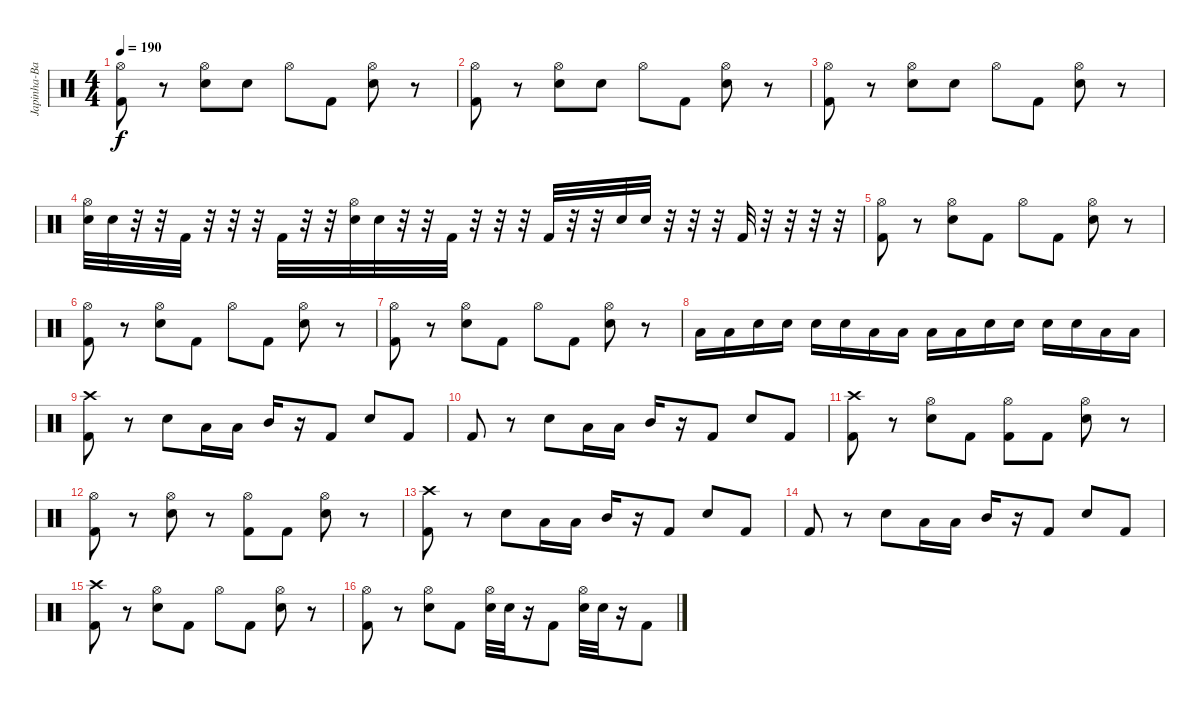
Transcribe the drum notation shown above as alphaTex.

\track ("Japinha-Batera" "Japinha-Ba") {instrument percussion}
\staff {score}
\articulation defaults
\ts (4 4)
\tempo 190
\clef neutral
\ks c
("Hi-Hat (open)" "Kick (hit) 2").8{dy f} r.8 ("Hi-Hat (open)" "Electric Snare (hit)").8 "Electric Snare (hit)".8 "Hi-Hat (open)".8 "Kick (hit) 2".8 ("Hi-Hat (open)" "Electric Snare (hit)").8 r.8 |
("Hi-Hat (open)" "Kick (hit) 2").8 r.8 ("Hi-Hat (open)" "Electric Snare (hit)").8 "Electric Snare (hit)".8 "Hi-Hat (open)".8 "Kick (hit) 2".8 ("Hi-Hat (open)" "Electric Snare (hit)").8 r.8 |
("Hi-Hat (open)" "Kick (hit) 2").8 r.8 ("Hi-Hat (open)" "Electric Snare (hit)").8 "Electric Snare (hit)".8 "Hi-Hat (open)".8 "Kick (hit) 2".8 ("Hi-Hat (open)" "Electric Snare (hit)").8 r.8 |
("Hi-Hat (open)" "Electric Snare (hit)").32 "Electric Snare (hit)".32 r.32 r.32 "Kick (hit) 2".32 r.32 r.32 r.32 "Kick (hit) 2".32 r.32 r.32 ("Hi-Hat (open)" "Electric Snare (hit)").32 "Electric Snare (hit)".32 r.32 r.32 "Kick (hit) 2".32 r.32 r.32 r.32 "Kick (hit) 2".32 r.32 r.32 "Electric Snare (hit)".32 "Electric Snare (hit)".32 r.32 r.32 r.32 "Kick (hit) 2".32 r.32 r.32 r.32 r.32 |
("Hi-Hat (open)" "Kick (hit) 2").8 r.8 ("Hi-Hat (open)" "Electric Snare (hit)").8 "Kick (hit) 2".8 "Hi-Hat (open)".8 "Kick (hit) 2".8 ("Hi-Hat (open)" "Electric Snare (hit)").8 r.8 |
("Hi-Hat (open)" "Kick (hit) 2").8 r.8 ("Hi-Hat (open)" "Electric Snare (hit)").8 "Kick (hit) 2".8 "Hi-Hat (open)".8 "Kick (hit) 2".8 ("Hi-Hat (open)" "Electric Snare (hit)").8 r.8 |
("Hi-Hat (open)" "Kick (hit) 2").8 r.8 ("Hi-Hat (open)" "Electric Snare (hit)").8 "Kick (hit) 2".8 "Hi-Hat (open)".8 "Kick (hit) 2".8 ("Hi-Hat (open)" "Electric Snare (hit)").8 r.8 |
"Low Tom (hit)".16 "Low Tom (hit)".16 "Electric Snare (hit)".16 "Electric Snare (hit)".16 "Electric Snare (hit)".16 "Electric Snare (hit)".16 "Low Tom (hit)".16 "Low Tom (hit)".16 "Low Tom (hit)".16 "Low Tom (hit)".16 "Electric Snare (hit)".16 "Electric Snare (hit)".16 "Electric Snare (hit)".16 "Electric Snare (hit)".16 "Low Tom (hit)".16 "Low Tom (hit)".16 |
("Crash high (hit)" "Kick (hit) 2").8 r.8 "Electric Snare (hit)".8 "Low Tom (hit)".16 "Low Tom (hit)".16 "Mid Tom (hit)".16 r.16 "Kick (hit) 2".8 "Electric Snare (hit)".8 "Kick (hit) 2".8 |
"Kick (hit) 2".8 r.8 "Electric Snare (hit)".8 "Low Tom (hit)".16 "Low Tom (hit)".16 "Mid Tom (hit)".16 r.16 "Kick (hit) 2".8 "Electric Snare (hit)".8 "Kick (hit) 2".8 |
("Crash high (hit)" "Kick (hit) 2").8 r.8 ("Hi-Hat (open)" "Electric Snare (hit)").8 "Kick (hit) 2".8 ("Hi-Hat (open)" "Kick (hit) 2").8 "Kick (hit) 2".8 ("Hi-Hat (open)" "Electric Snare (hit)").8 r.8 |
("Hi-Hat (open)" "Kick (hit) 2").8 r.8 ("Hi-Hat (open)" "Electric Snare (hit)").8 r.8 ("Hi-Hat (open)" "Kick (hit) 2").8 "Kick (hit) 2".8 ("Hi-Hat (open)" "Electric Snare (hit)").8 r.8 |
("Crash high (hit)" "Kick (hit) 2").8 r.8 "Electric Snare (hit)".8 "Low Tom (hit)".16 "Low Tom (hit)".16 "Mid Tom (hit)".16 r.16 "Kick (hit) 2".8 "Electric Snare (hit)".8 "Kick (hit) 2".8 |
"Kick (hit) 2".8 r.8 "Electric Snare (hit)".8 "Low Tom (hit)".16 "Low Tom (hit)".16 "Mid Tom (hit)".16 r.16 "Kick (hit) 2".8 "Electric Snare (hit)".8 "Kick (hit) 2".8 |
("Crash high (hit)" "Kick (hit) 2").8 r.8 ("Hi-Hat (open)" "Electric Snare (hit)").8 "Kick (hit) 2".8 "Hi-Hat (open)".8 "Kick (hit) 2".8 ("Hi-Hat (open)" "Electric Snare (hit)").8 r.8 |
("Hi-Hat (open)" "Kick (hit) 2").8 r.8 ("Hi-Hat (open)" "Electric Snare (hit)").8 "Kick (hit) 2".8 ("Hi-Hat (open)" "Electric Snare (hit)").32 "Electric Snare (hit)".32 r.16 "Kick (hit) 2".8 ("Hi-Hat (open)" "Electric Snare (hit)").32 "Electric Snare (hit)".32 r.16 "Kick (hit) 2".8
